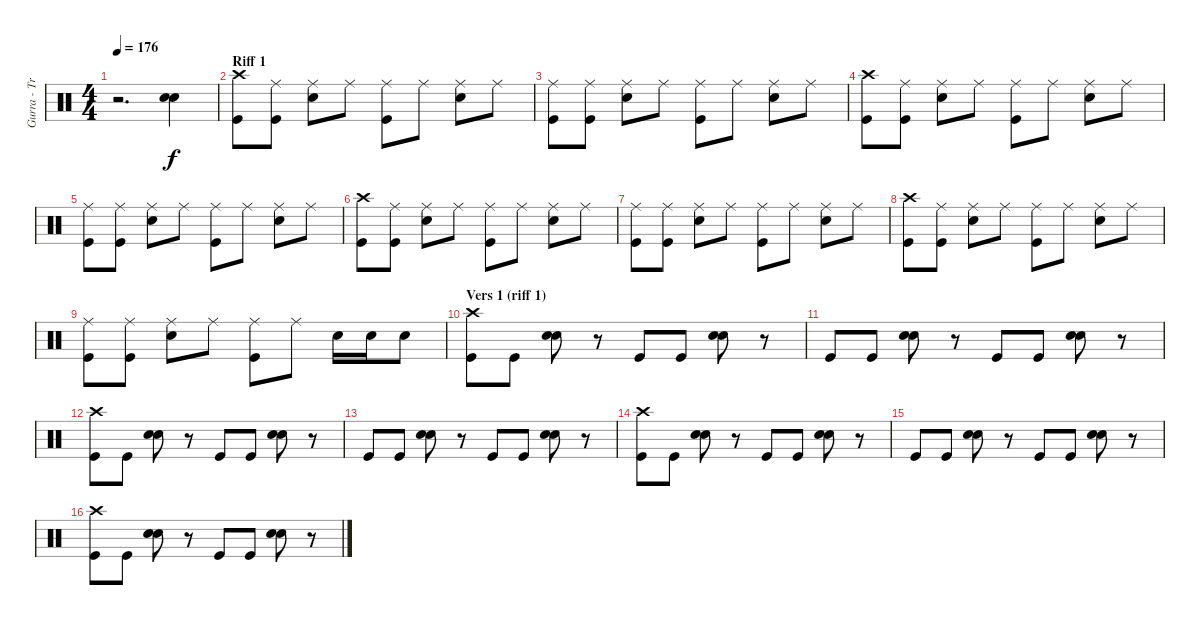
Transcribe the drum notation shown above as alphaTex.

\track ("Gurra - Trummor" "Gurra - Tr") {instrument percussion}
\staff {score}
\articulation defaults
\ts (4 4)
\tempo 176
\clef neutral
\ks c
r.2{d dy f} ("Electric Snare (hit)" "Electric Snare (hit)").4 |
\section ("" "Riff 1")
("Crash high (hit)" "Kick (hit)").8 ("Ride (middle)" "Kick (hit)").8 ("Ride (middle)" "Electric Snare (hit)").8 "Ride (middle)".8 ("Ride (middle)" "Kick (hit)").8 "Ride (middle)".8 ("Ride (middle)" "Electric Snare (hit)").8 "Ride (middle)".8 |
("Ride (middle)" "Kick (hit)").8 ("Ride (middle)" "Kick (hit)").8 ("Ride (middle)" "Electric Snare (hit)").8 "Ride (middle)".8 ("Ride (middle)" "Kick (hit)").8 "Ride (middle)".8 ("Ride (middle)" "Electric Snare (hit)").8 "Ride (middle)".8 |
("Crash high (hit)" "Kick (hit)").8 ("Ride (middle)" "Kick (hit)").8 ("Ride (middle)" "Electric Snare (hit)").8 "Ride (middle)".8 ("Ride (middle)" "Kick (hit)").8 "Ride (middle)".8 ("Ride (middle)" "Electric Snare (hit)").8 "Ride (middle)".8 |
("Ride (middle)" "Kick (hit)").8 ("Ride (middle)" "Kick (hit)").8 ("Ride (middle)" "Electric Snare (hit)").8 "Ride (middle)".8 ("Ride (middle)" "Kick (hit)").8 "Ride (middle)".8 ("Ride (middle)" "Electric Snare (hit)").8 "Ride (middle)".8 |
("Crash high (hit)" "Kick (hit)").8 ("Ride (middle)" "Kick (hit)").8 ("Ride (middle)" "Electric Snare (hit)").8 "Ride (middle)".8 ("Ride (middle)" "Kick (hit)").8 "Ride (middle)".8 ("Ride (middle)" "Electric Snare (hit)").8 "Ride (middle)".8 |
("Ride (middle)" "Kick (hit)").8 ("Ride (middle)" "Kick (hit)").8 ("Ride (middle)" "Electric Snare (hit)").8 "Ride (middle)".8 ("Ride (middle)" "Kick (hit)").8 "Ride (middle)".8 ("Ride (middle)" "Electric Snare (hit)").8 "Ride (middle)".8 |
("Crash high (hit)" "Kick (hit)").8 ("Ride (middle)" "Kick (hit)").8 ("Ride (middle)" "Electric Snare (hit)").8 "Ride (middle)".8 ("Ride (middle)" "Kick (hit)").8 "Ride (middle)".8 ("Ride (middle)" "Electric Snare (hit)").8 "Ride (middle)".8 |
("Ride (middle)" "Kick (hit)").8 ("Ride (middle)" "Kick (hit)").8 ("Ride (middle)" "Electric Snare (hit)").8 "Ride (middle)".8 ("Ride (middle)" "Kick (hit)").8 "Ride (middle)".8 "Electric Snare (hit)".16 "Electric Snare (hit)".16 "Electric Snare (hit)".8 |
\section ("" "Vers 1 (riff 1)")
("Crash high (hit)" "Kick (hit)").8 "Kick (hit)".8 ("Electric Snare (hit)" "Electric Snare (hit)").8 r.8 "Kick (hit)".8 "Kick (hit)".8 ("Electric Snare (hit)" "Electric Snare (hit)").8 r.8 |
"Kick (hit)".8 "Kick (hit)".8 ("Electric Snare (hit)" "Electric Snare (hit)").8 r.8 "Kick (hit)".8 "Kick (hit)".8 ("Electric Snare (hit)" "Electric Snare (hit)").8 r.8 |
("Crash high (hit)" "Kick (hit)").8 "Kick (hit)".8 ("Electric Snare (hit)" "Electric Snare (hit)").8 r.8 "Kick (hit)".8 "Kick (hit)".8 ("Electric Snare (hit)" "Electric Snare (hit)").8 r.8 |
"Kick (hit)".8 "Kick (hit)".8 ("Electric Snare (hit)" "Electric Snare (hit)").8 r.8 "Kick (hit)".8 "Kick (hit)".8 ("Electric Snare (hit)" "Electric Snare (hit)").8 r.8 |
("Crash high (hit)" "Kick (hit)").8 "Kick (hit)".8 ("Electric Snare (hit)" "Electric Snare (hit)").8 r.8 "Kick (hit)".8 "Kick (hit)".8 ("Electric Snare (hit)" "Electric Snare (hit)").8 r.8 |
"Kick (hit)".8 "Kick (hit)".8 ("Electric Snare (hit)" "Electric Snare (hit)").8 r.8 "Kick (hit)".8 "Kick (hit)".8 ("Electric Snare (hit)" "Electric Snare (hit)").8 r.8 |
("Crash high (hit)" "Kick (hit)").8 "Kick (hit)".8 ("Electric Snare (hit)" "Electric Snare (hit)").8 r.8 "Kick (hit)".8 "Kick (hit)".8 ("Electric Snare (hit)" "Electric Snare (hit)").8 r.8
